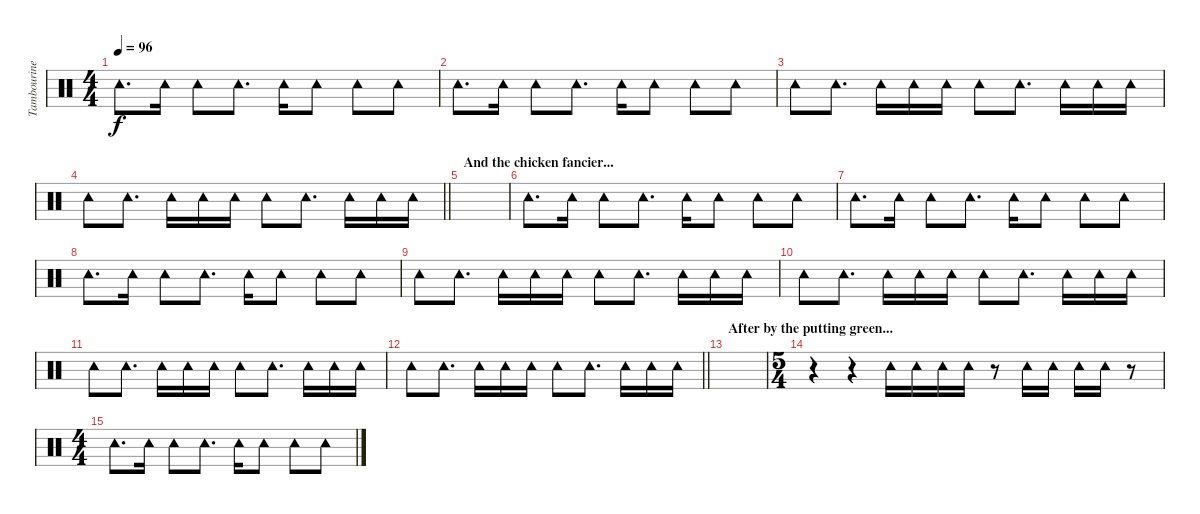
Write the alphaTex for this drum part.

\track ("Tambourine" "Tambourine") {instrument percussion}
\staff {score}
\articulation defaults
\ts (4 4)
\tempo 96
\clef neutral
\ks c "Tambourine (hit)".8{d dy f} "Tambourine (hit)".16 "Tambourine (hit)".8 "Tambourine (hit)".8{d} "Tambourine (hit)".16 "Tambourine (hit)".8 "Tambourine (hit)".8 "Tambourine (hit)".8
|
"Tambourine (hit)".8{d} "Tambourine (hit)".16 "Tambourine (hit)".8 "Tambourine (hit)".8{d} "Tambourine (hit)".16 "Tambourine (hit)".8 "Tambourine (hit)".8 "Tambourine (hit)".8 |
"Tambourine (hit)".8 "Tambourine (hit)".8{d} "Tambourine (hit)".16 "Tambourine (hit)".16 "Tambourine (hit)".16 "Tambourine (hit)".8 "Tambourine (hit)".8{d} "Tambourine (hit)".16 "Tambourine (hit)".16 "Tambourine (hit)".16 |
\barLineRight lightlight "Tambourine (hit)".8 "Tambourine (hit)".8{d} "Tambourine (hit)".16 "Tambourine (hit)".16 "Tambourine (hit)".16 "Tambourine (hit)".8 "Tambourine (hit)".8{d} "Tambourine (hit)".16 "Tambourine (hit)".16 "Tambourine (hit)".16
|
\section ("" "And the chicken fancier...")
|
"Tambourine (hit)".8{d} "Tambourine (hit)".16 "Tambourine (hit)".8 "Tambourine (hit)".8{d} "Tambourine (hit)".16 "Tambourine (hit)".8 "Tambourine (hit)".8 "Tambourine (hit)".8 |
"Tambourine (hit)".8{d} "Tambourine (hit)".16 "Tambourine (hit)".8 "Tambourine (hit)".8{d} "Tambourine (hit)".16 "Tambourine (hit)".8 "Tambourine (hit)".8 "Tambourine (hit)".8 |
"Tambourine (hit)".8{d} "Tambourine (hit)".16 "Tambourine (hit)".8 "Tambourine (hit)".8{d} "Tambourine (hit)".16 "Tambourine (hit)".8 "Tambourine (hit)".8 "Tambourine (hit)".8 |
"Tambourine (hit)".8 "Tambourine (hit)".8{d} "Tambourine (hit)".16 "Tambourine (hit)".16 "Tambourine (hit)".16 "Tambourine (hit)".8 "Tambourine (hit)".8{d} "Tambourine (hit)".16 "Tambourine (hit)".16 "Tambourine (hit)".16 |
"Tambourine (hit)".8 "Tambourine (hit)".8{d} "Tambourine (hit)".16 "Tambourine (hit)".16 "Tambourine (hit)".16 "Tambourine (hit)".8 "Tambourine (hit)".8{d} "Tambourine (hit)".16 "Tambourine (hit)".16 "Tambourine (hit)".16 |
"Tambourine (hit)".8 "Tambourine (hit)".8{d} "Tambourine (hit)".16 "Tambourine (hit)".16 "Tambourine (hit)".16 "Tambourine (hit)".8 "Tambourine (hit)".8{d} "Tambourine (hit)".16 "Tambourine (hit)".16 "Tambourine (hit)".16 |
\barLineRight lightlight "Tambourine (hit)".8 "Tambourine (hit)".8{d} "Tambourine (hit)".16 "Tambourine (hit)".16 "Tambourine (hit)".16 "Tambourine (hit)".8 "Tambourine (hit)".8{d} "Tambourine (hit)".16 "Tambourine (hit)".16 "Tambourine (hit)".16
|
\section ("" "After by the putting green...")
|
\ts (5 4)
r.4 r.4 "Tambourine (hit)".16 "Tambourine (hit)".16 "Tambourine (hit)".16 "Tambourine (hit)".16 r.8 "Tambourine (hit)".16 "Tambourine (hit)".16 "Tambourine (hit)".16 "Tambourine (hit)".16 r.8 |
\ts (4 4)
"Tambourine (hit)".8{d} "Tambourine (hit)".16 "Tambourine (hit)".8 "Tambourine (hit)".8{d} "Tambourine (hit)".16 "Tambourine (hit)".8 "Tambourine (hit)".8 "Tambourine (hit)".8
